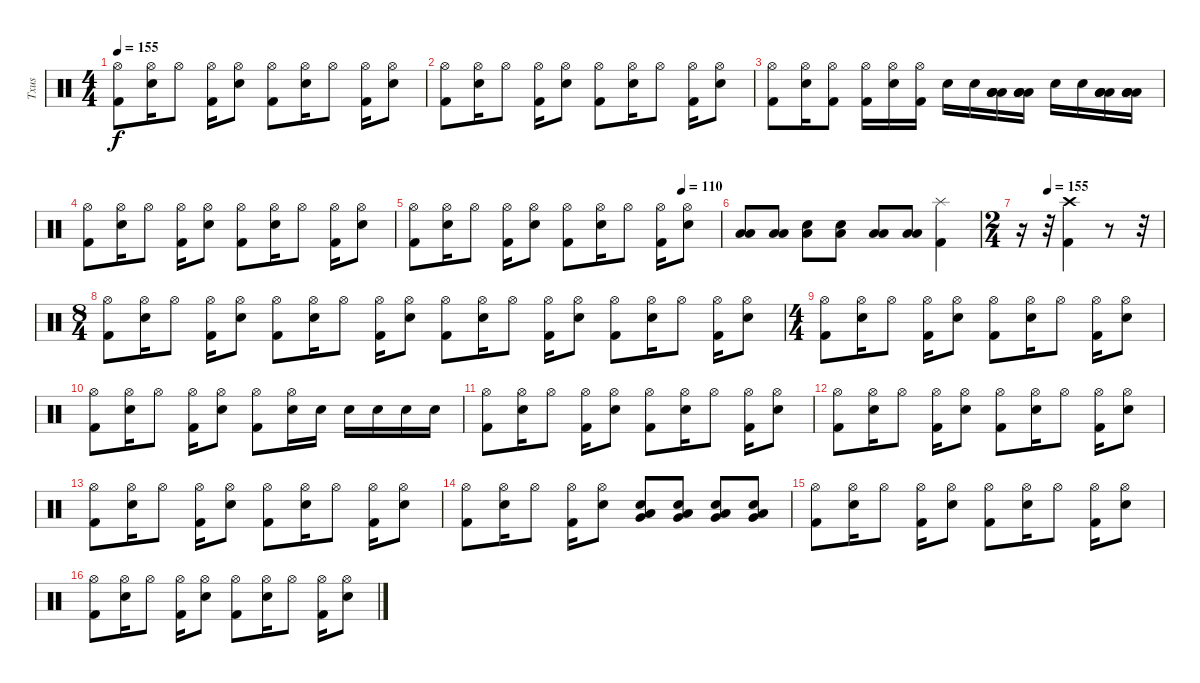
\track ("Txus" "Txus") {instrument percussion}
\staff {score}
\articulation defaults
\ts (4 4)
\tempo 155
\clef neutral
\ks c
("Kick (hit) 2" "Hi-Hat (open)").8{dy f} ("Snare (hit) 2" "Hi-Hat (open)").16 "Hi-Hat (open)".8 ("Kick (hit) 2" "Hi-Hat (open)").16 ("Snare (hit) 2" "Hi-Hat (open)").8 ("Kick (hit) 2" "Hi-Hat (open)").8 ("Snare (hit) 2" "Hi-Hat (open)").16 "Hi-Hat (open)".8 ("Kick (hit) 2" "Hi-Hat (open)").16 ("Snare (hit) 2" "Hi-Hat (open)").8 |
("Kick (hit) 2" "Hi-Hat (open)").8 ("Snare (hit) 2" "Hi-Hat (open)").16 "Hi-Hat (open)".8 ("Kick (hit) 2" "Hi-Hat (open)").16 ("Snare (hit) 2" "Hi-Hat (open)").8 ("Kick (hit) 2" "Hi-Hat (open)").8 ("Snare (hit) 2" "Hi-Hat (open)").16 "Hi-Hat (open)".8 ("Kick (hit) 2" "Hi-Hat (open)").16 ("Snare (hit) 2" "Hi-Hat (open)").8 |
("Hi-Hat (open)" "Kick (hit) 2").8 ("Hi-Hat (open)" "Snare (hit) 2").16 ("Hi-Hat (open)" "Kick (hit) 2").8 ("Hi-Hat (open)" "Kick (hit) 2").16 ("Hi-Hat (open)" "Snare (hit) 2").16 ("Hi-Hat (open)" "Kick (hit) 2").16 "Snare (hit) 2".16 "Snare (hit) 2".16 ("Low Tom (hit)" "Low Tom (hit)" "Low Tom (hit)" "Low Tom (hit)").16 ("Low Tom (hit)" "Low Tom (hit)" "Low Tom (hit)" "Low Tom (hit)").16 "Snare (hit) 2".16 "Snare (hit) 2".16 ("Low Tom (hit)" "Low Tom (hit)" "Low Tom (hit)" "Low Tom (hit)").16 ("Low Tom (hit)" "Low Tom (hit)" "Low Tom (hit)" "Low Tom (hit)").16 |
("Kick (hit) 2" "Hi-Hat (open)").8 ("Snare (hit) 2" "Hi-Hat (open)").16 "Hi-Hat (open)".8 ("Kick (hit) 2" "Hi-Hat (open)").16 ("Snare (hit) 2" "Hi-Hat (open)").8 ("Kick (hit) 2" "Hi-Hat (open)").8 ("Snare (hit) 2" "Hi-Hat (open)").16 "Hi-Hat (open)".8 ("Kick (hit) 2" "Hi-Hat (open)").16 ("Snare (hit) 2" "Hi-Hat (open)").8 |
\tempo (110 0.875)
("Kick (hit) 2" "Hi-Hat (open)").8 ("Snare (hit) 2" "Hi-Hat (open)").16 "Hi-Hat (open)".8 ("Kick (hit) 2" "Hi-Hat (open)").16 ("Snare (hit) 2" "Hi-Hat (open)").8 ("Kick (hit) 2" "Hi-Hat (open)").8 ("Snare (hit) 2" "Hi-Hat (open)").16 "Hi-Hat (open)".8 ("Kick (hit) 2" "Hi-Hat (open)").16 ("Snare (hit) 2" "Hi-Hat (open)").8 |
("Low Floor Tom (hit)" "Low Tom (hit)").8 ("Low Floor Tom (hit)" "Low Tom (hit)").8 ("Low Floor Tom (hit)" "Snare (hit) 2").8 ("Low Floor Tom (hit)" "Snare (hit) 2").8 ("Low Floor Tom (hit)" "Low Tom (hit)").8 ("Low Floor Tom (hit)" "Low Tom (hit)").8 ("Kick (hit) 2" "Splash (hit)").4 |
\ts (2 4)
\tempo (155 0.1875)
r.16 r.32 ("Kick (hit) 2" "Crash high (hit)").4 r.8 r.32 |
\ts (8 4)
("Kick (hit) 2" "Hi-Hat (open)").8 ("Snare (hit) 2" "Hi-Hat (open)").16 "Hi-Hat (open)".8 ("Kick (hit) 2" "Hi-Hat (open)").16 ("Snare (hit) 2" "Hi-Hat (open)").8 ("Kick (hit) 2" "Hi-Hat (open)").8 ("Snare (hit) 2" "Hi-Hat (open)").16 "Hi-Hat (open)".8 ("Kick (hit) 2" "Hi-Hat (open)").16 ("Snare (hit) 2" "Hi-Hat (open)").8 ("Kick (hit) 2" "Hi-Hat (open)").8 ("Snare (hit) 2" "Hi-Hat (open)").16 "Hi-Hat (open)".8 ("Kick (hit) 2" "Hi-Hat (open)").16 ("Snare (hit) 2" "Hi-Hat (open)").8 ("Kick (hit) 2" "Hi-Hat (open)").8 ("Snare (hit) 2" "Hi-Hat (open)").16 "Hi-Hat (open)".8 ("Kick (hit) 2" "Hi-Hat (open)").16 ("Snare (hit) 2" "Hi-Hat (open)").8 |
\ts (4 4)
("Kick (hit) 2" "Hi-Hat (open)").8 ("Snare (hit) 2" "Hi-Hat (open)").16 "Hi-Hat (open)".8 ("Kick (hit) 2" "Hi-Hat (open)").16 ("Snare (hit) 2" "Hi-Hat (open)").8 ("Kick (hit) 2" "Hi-Hat (open)").8 ("Snare (hit) 2" "Hi-Hat (open)").16 "Hi-Hat (open)".8 ("Kick (hit) 2" "Hi-Hat (open)").16 ("Snare (hit) 2" "Hi-Hat (open)").8 |
("Kick (hit) 2" "Hi-Hat (open)").8 ("Snare (hit) 2" "Hi-Hat (open)").16 "Hi-Hat (open)".8 ("Kick (hit) 2" "Hi-Hat (open)").16 ("Snare (hit) 2" "Hi-Hat (open)").8 ("Kick (hit) 2" "Hi-Hat (open)").8 ("Snare (hit) 2" "Hi-Hat (open)").16 "Snare (hit) 2".16 "Snare (hit) 2".16 "Snare (hit) 2".16 "Snare (hit) 2".16 "Snare (hit) 2".16 |
("Kick (hit) 2" "Hi-Hat (open)").8 ("Snare (hit) 2" "Hi-Hat (open)").16 "Hi-Hat (open)".8 ("Kick (hit) 2" "Hi-Hat (open)").16 ("Snare (hit) 2" "Hi-Hat (open)").8 ("Kick (hit) 2" "Hi-Hat (open)").8 ("Snare (hit) 2" "Hi-Hat (open)").16 "Hi-Hat (open)".8 ("Kick (hit) 2" "Hi-Hat (open)").16 ("Snare (hit) 2" "Hi-Hat (open)").8 |
("Kick (hit) 2" "Hi-Hat (open)").8 ("Snare (hit) 2" "Hi-Hat (open)").16 "Hi-Hat (open)".8 ("Kick (hit) 2" "Hi-Hat (open)").16 ("Snare (hit) 2" "Hi-Hat (open)").8 ("Kick (hit) 2" "Hi-Hat (open)").8 ("Snare (hit) 2" "Hi-Hat (open)").16 "Hi-Hat (open)".8 ("Kick (hit) 2" "Hi-Hat (open)").16 ("Snare (hit) 2" "Hi-Hat (open)").8 |
("Kick (hit) 2" "Hi-Hat (open)").8 ("Snare (hit) 2" "Hi-Hat (open)").16 "Hi-Hat (open)".8 ("Kick (hit) 2" "Hi-Hat (open)").16 ("Snare (hit) 2" "Hi-Hat (open)").8 ("Kick (hit) 2" "Hi-Hat (open)").8 ("Snare (hit) 2" "Hi-Hat (open)").16 "Hi-Hat (open)".8 ("Kick (hit) 2" "Hi-Hat (open)").16 ("Snare (hit) 2" "Hi-Hat (open)").8 |
("Kick (hit) 2" "Hi-Hat (open)").8 ("Snare (hit) 2" "Hi-Hat (open)").16 "Hi-Hat (open)".8 ("Kick (hit) 2" "Hi-Hat (open)").16 ("Snare (hit) 2" "Hi-Hat (open)").8 ("Very Low Tom (hit)" "Low Floor Tom (hit)" "Snare (hit) 2").8 ("Very Low Tom (hit)" "Low Floor Tom (hit)" "Snare (hit) 2").8 ("Very Low Tom (hit)" "Low Floor Tom (hit)" "Snare (hit) 2").8 ("Very Low Tom (hit)" "Low Floor Tom (hit)" "Snare (hit) 2").8 |
("Kick (hit) 2" "Hi-Hat (open)").8 ("Snare (hit) 2" "Hi-Hat (open)").16 "Hi-Hat (open)".8 ("Kick (hit) 2" "Hi-Hat (open)").16 ("Snare (hit) 2" "Hi-Hat (open)").8 ("Kick (hit) 2" "Hi-Hat (open)").8 ("Snare (hit) 2" "Hi-Hat (open)").16 "Hi-Hat (open)".8 ("Kick (hit) 2" "Hi-Hat (open)").16 ("Snare (hit) 2" "Hi-Hat (open)").8 |
("Kick (hit) 2" "Hi-Hat (open)").8 ("Snare (hit) 2" "Hi-Hat (open)").16 "Hi-Hat (open)".8 ("Kick (hit) 2" "Hi-Hat (open)").16 ("Snare (hit) 2" "Hi-Hat (open)").8 ("Kick (hit) 2" "Hi-Hat (open)").8 ("Snare (hit) 2" "Hi-Hat (open)").16 "Hi-Hat (open)".8 ("Kick (hit) 2" "Hi-Hat (open)").16 ("Snare (hit) 2" "Hi-Hat (open)").8
